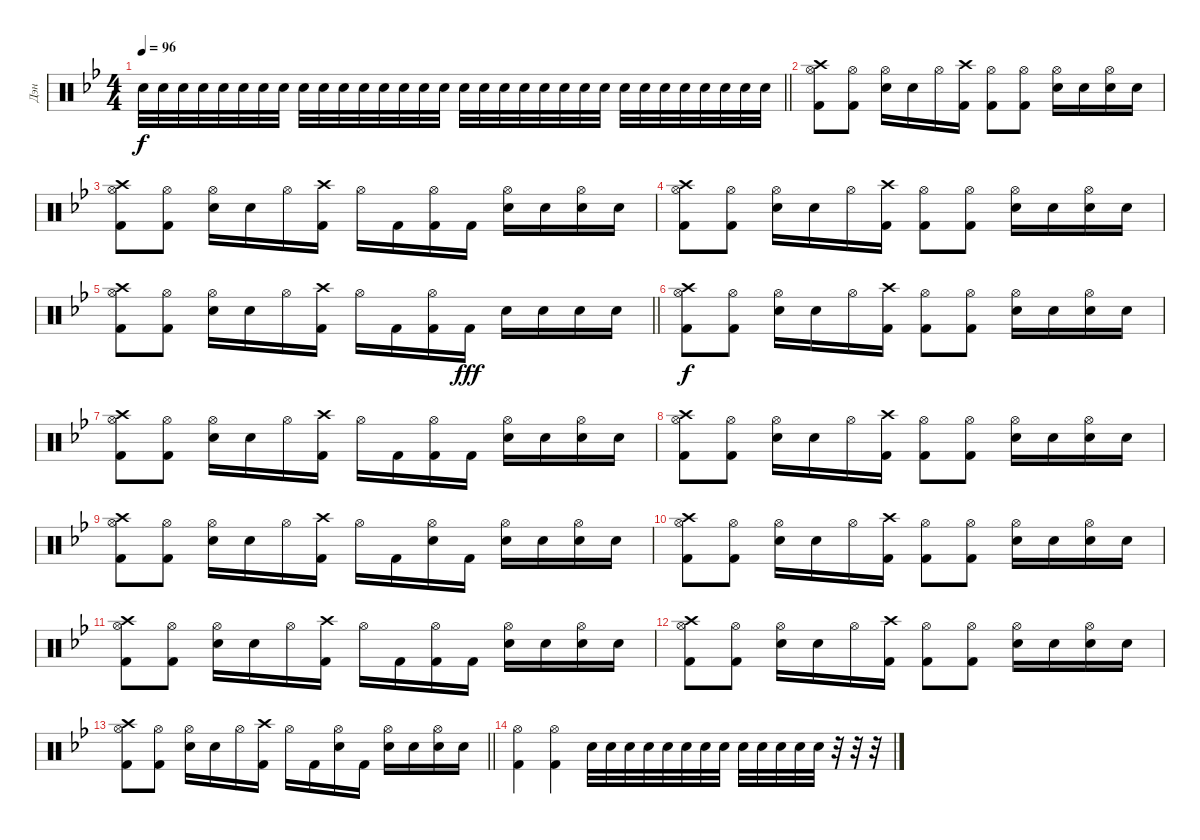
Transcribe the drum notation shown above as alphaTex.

\track ("Дэн" "Дэн") {instrument percussion}
\staff {score}
\articulation defaults
\ts (4 4)
\tempo 96
\clef neutral
\barLineRight lightlight
\ks gminor "Electric Snare (hit)".32{dy f} "Electric Snare (hit)".32 "Electric Snare (hit)".32 "Electric Snare (hit)".32 "Electric Snare (hit)".32 "Electric Snare (hit)".32 "Electric Snare (hit)".32 "Electric Snare (hit)".32 "Electric Snare (hit)".32 "Electric Snare (hit)".32 "Electric Snare (hit)".32 "Electric Snare (hit)".32 "Electric Snare (hit)".32 "Electric Snare (hit)".32 "Electric Snare (hit)".32 "Electric Snare (hit)".32 "Electric Snare (hit)".32 "Electric Snare (hit)".32 "Electric Snare (hit)".32 "Electric Snare (hit)".32 "Electric Snare (hit)".32 "Electric Snare (hit)".32 "Electric Snare (hit)".32 "Electric Snare (hit)".32 "Electric Snare (hit)".32{volume 16} "Electric Snare (hit)".32 "Electric Snare (hit)".32 "Electric Snare (hit)".32 "Electric Snare (hit)".32 "Electric Snare (hit)".32 "Electric Snare (hit)".32 "Electric Snare (hit)".32
|
("Crash high (hit)" "Hi-Hat (open)" "Kick (hit) 2").8 ("Hi-Hat (open)" "Kick (hit) 2").8 ("Hi-Hat (open)" "Electric Snare (hit)").16 "Electric Snare (hit)".16 "Hi-Hat (open)".16 ("Crash high (hit)" "Kick (hit) 2").16 ("Hi-Hat (open)" "Kick (hit) 2").8 ("Hi-Hat (open)" "Kick (hit) 2").8 ("Hi-Hat (open)" "Electric Snare (hit)").16 "Electric Snare (hit)".16 ("Hi-Hat (open)" "Electric Snare (hit)").16 "Electric Snare (hit)".16 |
("Crash high (hit)" "Hi-Hat (open)" "Kick (hit) 2").8 ("Hi-Hat (open)" "Kick (hit) 2").8 ("Hi-Hat (open)" "Electric Snare (hit)").16 "Electric Snare (hit)".16 "Hi-Hat (open)".16 ("Crash high (hit)" "Kick (hit) 2").16 "Hi-Hat (open)".16 "Kick (hit) 2".16 ("Hi-Hat (open)" "Kick (hit) 2").16 "Kick (hit) 2".16 ("Hi-Hat (open)" "Electric Snare (hit)").16 "Electric Snare (hit)".16 ("Hi-Hat (open)" "Electric Snare (hit)").16 "Electric Snare (hit)".16 |
("Crash high (hit)" "Hi-Hat (open)" "Kick (hit) 2").8 ("Hi-Hat (open)" "Kick (hit) 2").8 ("Hi-Hat (open)" "Electric Snare (hit)").16 "Electric Snare (hit)".16 "Hi-Hat (open)".16 ("Crash high (hit)" "Kick (hit) 2").16 ("Hi-Hat (open)" "Kick (hit) 2").8 ("Hi-Hat (open)" "Kick (hit) 2").8 ("Hi-Hat (open)" "Electric Snare (hit)").16 "Electric Snare (hit)".16 ("Hi-Hat (open)" "Electric Snare (hit)").16 "Electric Snare (hit)".16 |
\barLineRight lightlight
("Crash high (hit)" "Hi-Hat (open)" "Kick (hit) 2").8 ("Hi-Hat (open)" "Kick (hit) 2").8 ("Hi-Hat (open)" "Electric Snare (hit)").16 "Electric Snare (hit)".16 "Hi-Hat (open)".16 ("Crash high (hit)" "Kick (hit) 2").16 "Hi-Hat (open)".16 "Kick (hit) 2".16 ("Hi-Hat (open)" "Kick (hit) 2").16 "Kick (hit) 2".16{dy fff} "Electric Snare (hit)".16 "Electric Snare (hit)".16 "Electric Snare (hit)".16 "Electric Snare (hit)".16 |
("Crash high (hit)" "Hi-Hat (open)" "Kick (hit) 2").8{dy f} ("Hi-Hat (open)" "Kick (hit) 2").8 ("Hi-Hat (open)" "Electric Snare (hit)").16 "Electric Snare (hit)".16 "Hi-Hat (open)".16 ("Crash high (hit)" "Kick (hit) 2").16 ("Hi-Hat (open)" "Kick (hit) 2").8 ("Hi-Hat (open)" "Kick (hit) 2").8 ("Hi-Hat (open)" "Electric Snare (hit)").16 "Electric Snare (hit)".16 ("Hi-Hat (open)" "Electric Snare (hit)").16 "Electric Snare (hit)".16 |
("Crash high (hit)" "Hi-Hat (open)" "Kick (hit) 2").8 ("Hi-Hat (open)" "Kick (hit) 2").8 ("Hi-Hat (open)" "Electric Snare (hit)").16 "Electric Snare (hit)".16 "Hi-Hat (open)".16 ("Crash high (hit)" "Kick (hit) 2").16 "Hi-Hat (open)".16 "Kick (hit) 2".16 ("Hi-Hat (open)" "Kick (hit) 2").16 "Kick (hit) 2".16 ("Hi-Hat (open)" "Electric Snare (hit)").16 "Electric Snare (hit)".16 ("Hi-Hat (open)" "Electric Snare (hit)").16 "Electric Snare (hit)".16 |
("Crash high (hit)" "Hi-Hat (open)" "Kick (hit) 2").8 ("Hi-Hat (open)" "Kick (hit) 2").8 ("Hi-Hat (open)" "Electric Snare (hit)").16 "Electric Snare (hit)".16 "Hi-Hat (open)".16 ("Crash high (hit)" "Kick (hit) 2").16 ("Hi-Hat (open)" "Kick (hit) 2").8 ("Hi-Hat (open)" "Kick (hit) 2").8 ("Hi-Hat (open)" "Electric Snare (hit)").16 "Electric Snare (hit)".16 ("Hi-Hat (open)" "Electric Snare (hit)").16 "Electric Snare (hit)".16 |
("Crash high (hit)" "Hi-Hat (open)" "Kick (hit) 2").8 ("Hi-Hat (open)" "Kick (hit) 2").8 ("Hi-Hat (open)" "Electric Snare (hit)").16 "Electric Snare (hit)".16 "Hi-Hat (open)".16 ("Crash high (hit)" "Kick (hit) 2").16 "Hi-Hat (open)".16 "Kick (hit) 2".16 ("Hi-Hat (open)" "Electric Snare (hit)").16 "Kick (hit) 2".16 ("Hi-Hat (open)" "Electric Snare (hit)").16 "Electric Snare (hit)".16 ("Hi-Hat (open)" "Electric Snare (hit)").16 "Electric Snare (hit)".16 |
("Crash high (hit)" "Hi-Hat (open)" "Kick (hit) 2").8 ("Hi-Hat (open)" "Kick (hit) 2").8 ("Hi-Hat (open)" "Electric Snare (hit)").16 "Electric Snare (hit)".16 "Hi-Hat (open)".16 ("Crash high (hit)" "Kick (hit) 2").16 ("Hi-Hat (open)" "Kick (hit) 2").8 ("Hi-Hat (open)" "Kick (hit) 2").8 ("Hi-Hat (open)" "Electric Snare (hit)").16 "Electric Snare (hit)".16 ("Hi-Hat (open)" "Electric Snare (hit)").16 "Electric Snare (hit)".16 |
("Crash high (hit)" "Hi-Hat (open)" "Kick (hit) 2").8 ("Hi-Hat (open)" "Kick (hit) 2").8 ("Hi-Hat (open)" "Electric Snare (hit)").16 "Electric Snare (hit)".16 "Hi-Hat (open)".16 ("Crash high (hit)" "Kick (hit) 2").16 "Hi-Hat (open)".16 "Kick (hit) 2".16 ("Hi-Hat (open)" "Kick (hit) 2").16 "Kick (hit) 2".16 ("Hi-Hat (open)" "Electric Snare (hit)").16 "Electric Snare (hit)".16 ("Hi-Hat (open)" "Electric Snare (hit)").16 "Electric Snare (hit)".16 |
("Crash high (hit)" "Hi-Hat (open)" "Kick (hit) 2").8 ("Hi-Hat (open)" "Kick (hit) 2").8 ("Hi-Hat (open)" "Electric Snare (hit)").16 "Electric Snare (hit)".16 "Hi-Hat (open)".16 ("Crash high (hit)" "Kick (hit) 2").16 ("Hi-Hat (open)" "Kick (hit) 2").8 ("Hi-Hat (open)" "Kick (hit) 2").8 ("Hi-Hat (open)" "Electric Snare (hit)").16 "Electric Snare (hit)".16 ("Hi-Hat (open)" "Electric Snare (hit)").16 "Electric Snare (hit)".16 |
\barLineRight lightlight
("Crash high (hit)" "Hi-Hat (open)" "Kick (hit) 2").8 ("Hi-Hat (open)" "Kick (hit) 2").8 ("Hi-Hat (open)" "Electric Snare (hit)").16 "Electric Snare (hit)".16 "Hi-Hat (open)".16 ("Crash high (hit)" "Kick (hit) 2").16 "Hi-Hat (open)".16 "Kick (hit) 2".16 ("Hi-Hat (open)" "Electric Snare (hit)").16 "Kick (hit) 2".16 ("Hi-Hat (open)" "Electric Snare (hit)").16 "Electric Snare (hit)".16 ("Hi-Hat (open)" "Electric Snare (hit)").16 "Electric Snare (hit)".16 |
("Hi-Hat (open)" "Kick (hit) 2").4 ("Hi-Hat (open)" "Kick (hit) 2").4 "Electric Snare (hit)".32 "Electric Snare (hit)".32 "Electric Snare (hit)".32 "Electric Snare (hit)".32 "Electric Snare (hit)".32 "Electric Snare (hit)".32 "Electric Snare (hit)".32 "Electric Snare (hit)".32 "Electric Snare (hit)".32 "Electric Snare (hit)".32 "Electric Snare (hit)".32 "Electric Snare (hit)".32 "Electric Snare (hit)".32 r.32 r.32 r.32
